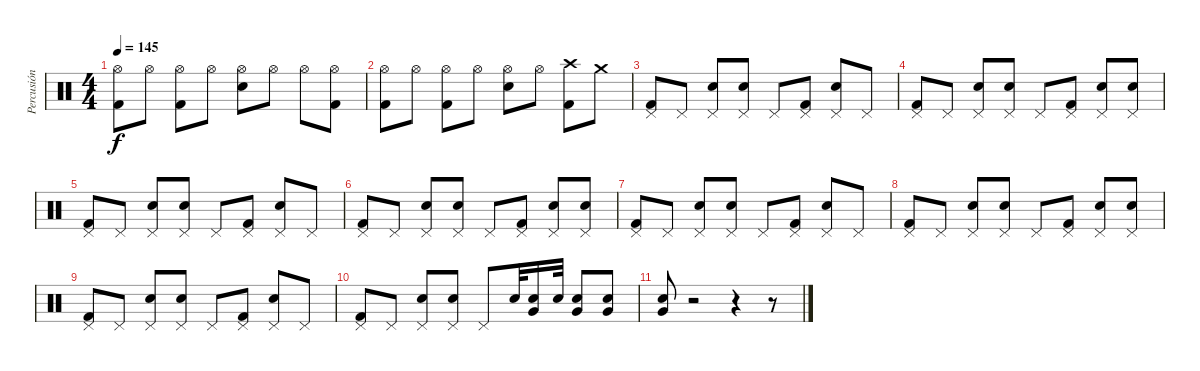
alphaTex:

\track ("Percusión" "Percusión") {instrument percussion}
\staff {score}
\articulation defaults
\ts (4 4)
\tempo 145
\clef neutral
\ks c
("Hi-Hat (open)" "Kick (hit) 2").8{dy f} "Hi-Hat (open)".8 ("Hi-Hat (open)" "Kick (hit) 2").8 "Hi-Hat (open)".8 ("Hi-Hat (open)" "Snare (hit) 2").8 "Hi-Hat (open)".8 "Hi-Hat (open)".8 ("Hi-Hat (open)" "Kick (hit) 2").8 |
("Hi-Hat (open)" "Kick (hit) 2").8 "Hi-Hat (open)".8 ("Hi-Hat (open)" "Kick (hit) 2").8 "Hi-Hat (open)".8 ("Hi-Hat (open)" "Snare (hit) 2").8 "Hi-Hat (open)".8 ("Crash high (hit)" "Kick (hit) 2").8 "Crash medium (hit)".8 |
("Pedal Hi-Hat (hit)" "Kick (hit) 2").8 "Pedal Hi-Hat (hit)".8 ("Pedal Hi-Hat (hit)" "Snare (hit) 2").8 ("Pedal Hi-Hat (hit)" "Snare (hit) 2").8 "Pedal Hi-Hat (hit)".8 ("Pedal Hi-Hat (hit)" "Kick (hit) 2").8 ("Pedal Hi-Hat (hit)" "Snare (hit) 2").8 "Pedal Hi-Hat (hit)".8 |
("Pedal Hi-Hat (hit)" "Kick (hit) 2").8 "Pedal Hi-Hat (hit)".8 ("Pedal Hi-Hat (hit)" "Snare (hit) 2").8 ("Pedal Hi-Hat (hit)" "Snare (hit) 2").8 "Pedal Hi-Hat (hit)".8 ("Pedal Hi-Hat (hit)" "Kick (hit) 2").8 ("Pedal Hi-Hat (hit)" "Snare (hit) 2").8 ("Pedal Hi-Hat (hit)" "Snare (hit) 2").8 |
("Pedal Hi-Hat (hit)" "Kick (hit) 2").8 "Pedal Hi-Hat (hit)".8 ("Pedal Hi-Hat (hit)" "Snare (hit) 2").8 ("Pedal Hi-Hat (hit)" "Snare (hit) 2").8 "Pedal Hi-Hat (hit)".8 ("Pedal Hi-Hat (hit)" "Kick (hit) 2").8 ("Pedal Hi-Hat (hit)" "Snare (hit) 2").8 "Pedal Hi-Hat (hit)".8 |
("Pedal Hi-Hat (hit)" "Kick (hit) 2").8 "Pedal Hi-Hat (hit)".8 ("Pedal Hi-Hat (hit)" "Snare (hit) 2").8 ("Pedal Hi-Hat (hit)" "Snare (hit) 2").8 "Pedal Hi-Hat (hit)".8 ("Pedal Hi-Hat (hit)" "Kick (hit) 2").8 ("Pedal Hi-Hat (hit)" "Snare (hit) 2").8 ("Pedal Hi-Hat (hit)" "Snare (hit) 2").8 |
("Pedal Hi-Hat (hit)" "Kick (hit) 2").8 "Pedal Hi-Hat (hit)".8 ("Pedal Hi-Hat (hit)" "Snare (hit) 2").8 ("Pedal Hi-Hat (hit)" "Snare (hit) 2").8 "Pedal Hi-Hat (hit)".8 ("Pedal Hi-Hat (hit)" "Kick (hit) 2").8 ("Pedal Hi-Hat (hit)" "Snare (hit) 2").8 "Pedal Hi-Hat (hit)".8 |
("Pedal Hi-Hat (hit)" "Kick (hit) 2").8 "Pedal Hi-Hat (hit)".8 ("Pedal Hi-Hat (hit)" "Snare (hit) 2").8 ("Pedal Hi-Hat (hit)" "Snare (hit) 2").8 "Pedal Hi-Hat (hit)".8 ("Pedal Hi-Hat (hit)" "Kick (hit) 2").8 ("Pedal Hi-Hat (hit)" "Snare (hit) 2").8 ("Pedal Hi-Hat (hit)" "Snare (hit) 2").8 |
("Pedal Hi-Hat (hit)" "Kick (hit) 2").8 "Pedal Hi-Hat (hit)".8 ("Pedal Hi-Hat (hit)" "Snare (hit) 2").8 ("Pedal Hi-Hat (hit)" "Snare (hit) 2").8 "Pedal Hi-Hat (hit)".8 ("Pedal Hi-Hat (hit)" "Kick (hit) 2").8 ("Pedal Hi-Hat (hit)" "Snare (hit) 2").8 "Pedal Hi-Hat (hit)".8 |
("Pedal Hi-Hat (hit)" "Kick (hit) 2").8 "Pedal Hi-Hat (hit)".8 ("Pedal Hi-Hat (hit)" "Snare (hit) 2").8 ("Pedal Hi-Hat (hit)" "Snare (hit) 2").8 "Pedal Hi-Hat (hit)".8 "Snare (hit) 2".32 ("Very Low Tom (hit)" "Snare (hit) 2").16 "Snare (hit) 2".32 ("Very Low Tom (hit)" "Snare (hit) 2").8 ("Very Low Tom (hit)" "Snare (hit) 2").8 |
("Very Low Tom (hit)" "Snare (hit) 2").8 r.2 r.4 r.8
